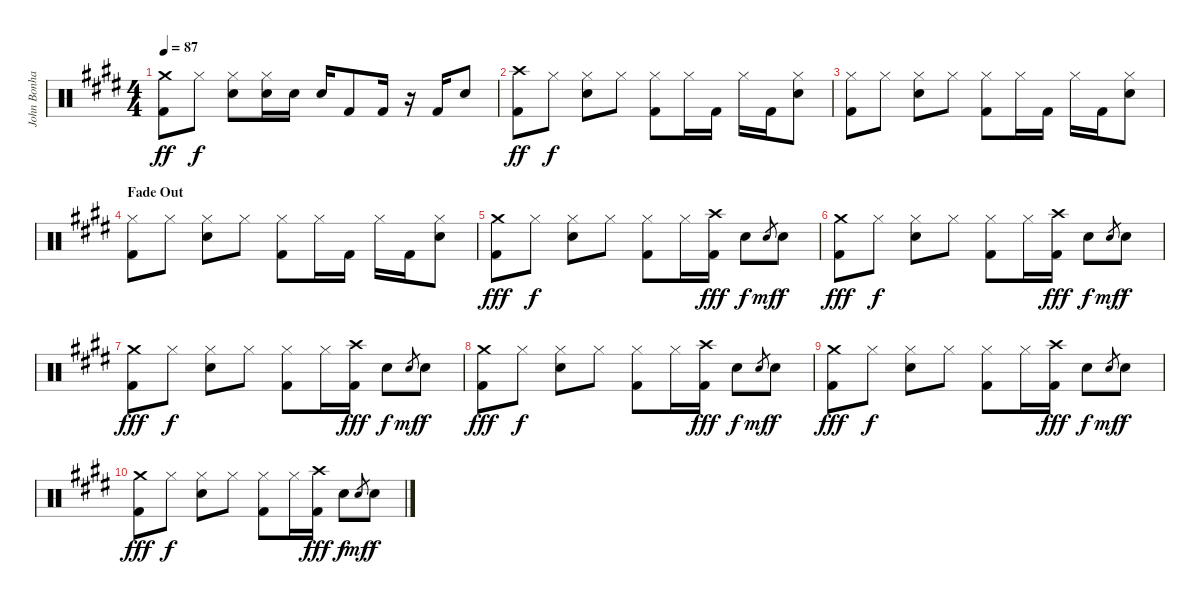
\track ("John Bonham Drums" "John Bonha") {instrument percussion}
\staff {score}
\articulation defaults
\ts (4 4)
\tempo 87
\clef neutral
\ks e
("Crash medium (hit)" "Kick (hit) 2").8{dy ff} "Hi-Hat (closed)".8{dy f} ("Hi-Hat (closed)" "Snare (hit) 2").8 ("Hi-Hat (closed)" "Snare (hit) 2").16 "Snare (hit) 2".16 "Snare (hit) 2".16 "Kick (hit) 2".8 "Kick (hit) 2".16 r.16 "Kick (hit) 2".16 "Snare (hit) 2".8 |
("Crash high (hit)" "Kick (hit) 2").8{dy ff} "Hi-Hat (closed)".8{dy f} ("Hi-Hat (closed)" "Snare (hit) 2").8 "Hi-Hat (closed)".8 ("Hi-Hat (closed)" "Kick (hit) 2").8 "Hi-Hat (closed)".16 "Kick (hit) 2".16 "Hi-Hat (closed)".16 "Kick (hit) 2".16 ("Hi-Hat (closed)" "Snare (hit) 2").8 |
("Hi-Hat (closed)" "Kick (hit) 2").8 "Hi-Hat (closed)".8 ("Hi-Hat (closed)" "Snare (hit) 2").8 "Hi-Hat (closed)".8 ("Hi-Hat (closed)" "Kick (hit) 2").8 "Hi-Hat (closed)".16 "Kick (hit) 2".16 "Hi-Hat (closed)".16 "Kick (hit) 2".16 ("Hi-Hat (closed)" "Snare (hit) 2").8 |
\section ("" "Fade Out")
("Hi-Hat (closed)" "Kick (hit) 2").8 "Hi-Hat (closed)".8 ("Hi-Hat (closed)" "Snare (hit) 2").8 "Hi-Hat (closed)".8 ("Hi-Hat (closed)" "Kick (hit) 2").8 "Hi-Hat (closed)".16 "Kick (hit) 2".16 "Hi-Hat (closed)".16 "Kick (hit) 2".16 ("Hi-Hat (closed)" "Snare (hit) 2").8 |
("Crash medium (hit)" "Kick (hit) 2").8{dy fff} "Hi-Hat (closed)".8{dy f} ("Hi-Hat (closed)" "Snare (hit) 2").8 "Hi-Hat (closed)".8 ("Hi-Hat (closed)" "Kick (hit) 2").8 "Hi-Hat (closed)".16 ("Crash high (hit)" "Kick (hit) 2").16{dy fff} "Snare (hit)".8{dy f} "Snare (hit)".8{gr dy mf} "Snare (hit) 2".8{dy f} |
("Crash medium (hit)" "Kick (hit) 2").8{dy fff} "Hi-Hat (closed)".8{dy f} ("Hi-Hat (closed)" "Snare (hit) 2").8 "Hi-Hat (closed)".8 ("Hi-Hat (closed)" "Kick (hit) 2").8 "Hi-Hat (closed)".16 ("Crash high (hit)" "Kick (hit) 2").16{dy fff} "Snare (hit)".8{dy f} "Snare (hit)".8{gr dy mf} "Snare (hit) 2".8{dy f} |
("Crash medium (hit)" "Kick (hit) 2").8{dy fff} "Hi-Hat (closed)".8{dy f} ("Hi-Hat (closed)" "Snare (hit) 2").8 "Hi-Hat (closed)".8 ("Hi-Hat (closed)" "Kick (hit) 2").8 "Hi-Hat (closed)".16 ("Crash high (hit)" "Kick (hit) 2").16{dy fff} "Snare (hit)".8{dy f} "Snare (hit)".8{gr dy mf} "Snare (hit) 2".8{dy f} |
("Crash medium (hit)" "Kick (hit) 2").8{dy fff} "Hi-Hat (closed)".8{dy f} ("Hi-Hat (closed)" "Snare (hit) 2").8 "Hi-Hat (closed)".8 ("Hi-Hat (closed)" "Kick (hit) 2").8 "Hi-Hat (closed)".16 ("Crash high (hit)" "Kick (hit) 2").16{dy fff} "Snare (hit)".8{dy f} "Snare (hit)".8{gr dy mf} "Snare (hit) 2".8{dy f} |
("Crash medium (hit)" "Kick (hit) 2").8{dy fff} "Hi-Hat (closed)".8{dy f} ("Hi-Hat (closed)" "Snare (hit) 2").8 "Hi-Hat (closed)".8 ("Hi-Hat (closed)" "Kick (hit) 2").8 "Hi-Hat (closed)".16 ("Crash high (hit)" "Kick (hit) 2").16{dy fff} "Snare (hit)".8{dy f} "Snare (hit)".8{gr dy mf} "Snare (hit) 2".8{dy f} |
("Crash medium (hit)" "Kick (hit) 2").8{dy fff} "Hi-Hat (closed)".8{dy f} ("Hi-Hat (closed)" "Snare (hit) 2").8 "Hi-Hat (closed)".8 ("Hi-Hat (closed)" "Kick (hit) 2").8 "Hi-Hat (closed)".16 ("Crash high (hit)" "Kick (hit) 2").16{dy fff} "Snare (hit)".8{dy f} "Snare (hit)".8{gr dy mf} "Snare (hit) 2".8{dy f}
